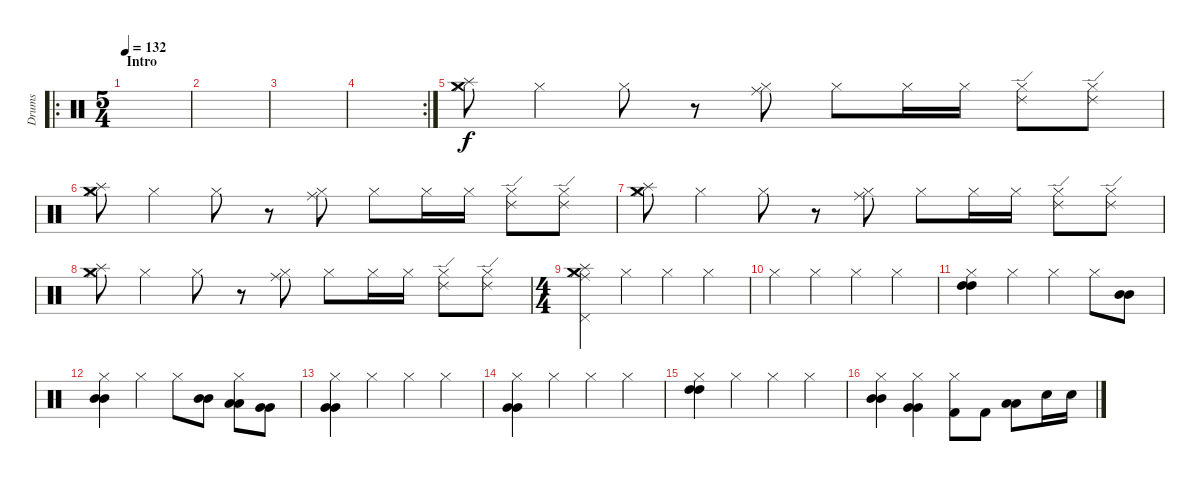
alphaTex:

\track ("Drums" "Drums") {instrument percussion}
\staff {score}
\articulation defaults
\ro
\ts (5 4)
\section ("" "Intro")
\tempo 132
\clef neutral
\ks c
|
|
|
\rc 2
|
("Hi-Hat (closed)" "Splash (hit)" "Crash medium (hit)").8 "Hi-Hat (closed)".4 "Hi-Hat (closed)".8 r.8 ("Hi-Hat (closed)" "Ride (middle)").8 "Hi-Hat (closed)".8 "Hi-Hat (closed)".16 "Hi-Hat (closed)".16 ("Ride (edge) 2" "Hi-Hat (closed)").8 ("Ride (edge) 2" "Hi-Hat (closed)").8 |
("Hi-Hat (closed)" "Splash (hit)" "Crash medium (hit)").8 "Hi-Hat (closed)".4 "Hi-Hat (closed)".8 r.8 ("Hi-Hat (closed)" "Ride (middle)").8 "Hi-Hat (closed)".8 "Hi-Hat (closed)".16 "Hi-Hat (closed)".16 ("Ride (edge) 2" "Hi-Hat (closed)").8 ("Ride (edge) 2" "Hi-Hat (closed)").8 |
("Hi-Hat (closed)" "Splash (hit)" "Crash medium (hit)").8 "Hi-Hat (closed)".4 "Hi-Hat (closed)".8 r.8 ("Hi-Hat (closed)" "Ride (middle)").8 "Hi-Hat (closed)".8 "Hi-Hat (closed)".16 "Hi-Hat (closed)".16 ("Ride (edge) 2" "Hi-Hat (closed)").8 ("Ride (edge) 2" "Hi-Hat (closed)").8 |
("Hi-Hat (closed)" "Splash (hit)" "Crash medium (hit)").8 "Hi-Hat (closed)".4 "Hi-Hat (closed)".8 r.8 ("Hi-Hat (closed)" "Ride (middle)").8 "Hi-Hat (closed)".8 "Hi-Hat (closed)".16 "Hi-Hat (closed)".16 ("Ride (edge) 2" "Hi-Hat (closed)").8 ("Ride (edge) 2" "Hi-Hat (closed)").8 |
\ts (4 4)
("Splash (hit)" "Ride (middle)" "Hi-Hat (closed)" "Pedal Hi-Hat (hit)" "Crash medium (hit)").4 "Hi-Hat (closed)".4 "Hi-Hat (closed)".4 "Hi-Hat (closed)".4 |
"Hi-Hat (closed)".4 "Hi-Hat (closed)".4 "Hi-Hat (closed)".4 "Hi-Hat (closed)".4 |
("Hi-Hat (closed)" "High Tom (hit)" "High Tom (hit)").4 "Hi-Hat (closed)".4 "Hi-Hat (closed)".4 "Hi-Hat (closed)".8 ("Mid Tom (hit)" "Mid Tom (hit)").8 |
("Hi-Hat (closed)" "Mid Tom (hit)" "Mid Tom (hit)").4 "Hi-Hat (closed)".4 "Hi-Hat (closed)".8 ("Mid Tom (hit)" "Mid Tom (hit)").8 ("Hi-Hat (closed)" "Low Tom (hit)" "Low Tom (hit)").8 ("Very Low Tom (hit)" "Very Low Tom (hit)").8 |
("Hi-Hat (closed)" "Very Low Tom (hit)" "Very Low Tom (hit)").4 "Hi-Hat (closed)".4 "Hi-Hat (closed)".4 "Hi-Hat (closed)".4 |
("Hi-Hat (closed)" "Very Low Tom (hit)" "Very Low Tom (hit)").4 "Hi-Hat (closed)".4 "Hi-Hat (closed)".4 "Hi-Hat (closed)".4 |
("Hi-Hat (closed)" "High Tom (hit)" "High Tom (hit)").4 "Hi-Hat (closed)".4 "Hi-Hat (closed)".4 "Hi-Hat (closed)".4 |
("Hi-Hat (closed)" "Mid Tom (hit)" "Mid Tom (hit)").4 ("Very Low Tom (hit)" "Very Low Tom (hit)" "Hi-Hat (closed)").4 ("Kick (hit) 2" "Hi-Hat (closed)").8 "Kick (hit) 2".8 ("Low Tom (hit)" "Low Tom (hit)").8 "Snare (hit) 2".16 "Snare (hit) 2".16
